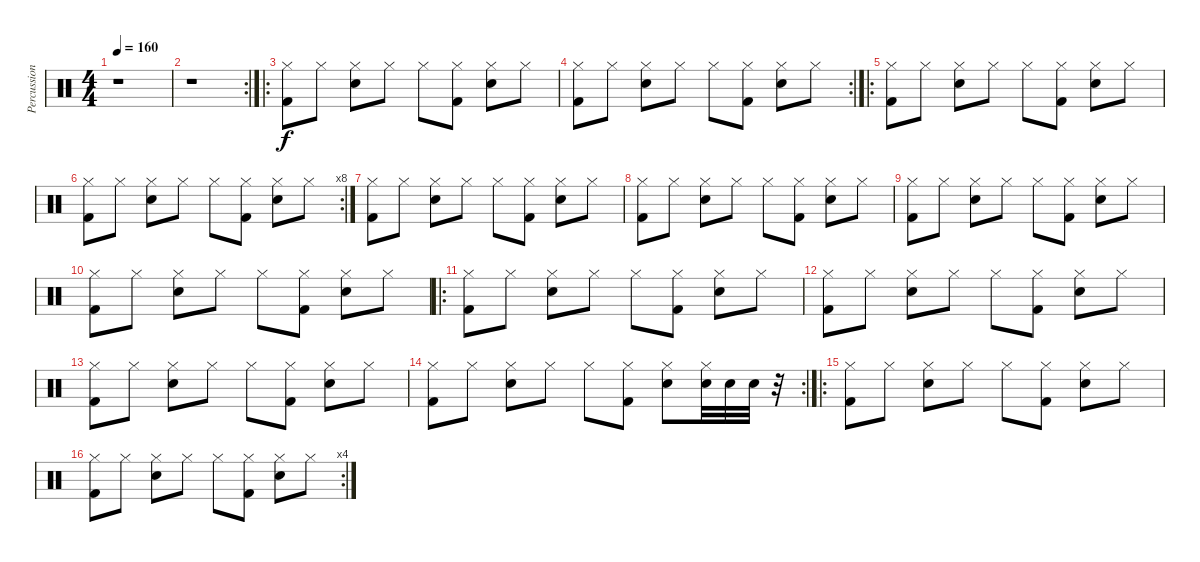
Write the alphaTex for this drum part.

\track ("Percussions" "Percussion") {instrument percussion}
\staff {score}
\articulation defaults
\ts (4 4)
\tempo 160
\clef neutral
\ks c
r.1{dy f} |
\rc 2
r.1 |
\ro
("Hi-Hat (closed)" "Kick (hit) 2").8 "Hi-Hat (closed)".8 ("Hi-Hat (closed)" "Snare (hit) 2").8 "Hi-Hat (closed)".8 "Hi-Hat (closed)".8 ("Hi-Hat (closed)" "Kick (hit) 2").8 ("Hi-Hat (closed)" "Snare (hit) 2").8 "Hi-Hat (closed)".8 |
\rc 2
("Hi-Hat (closed)" "Kick (hit) 2").8 "Hi-Hat (closed)".8 ("Hi-Hat (closed)" "Snare (hit) 2").8 "Hi-Hat (closed)".8 "Hi-Hat (closed)".8 ("Hi-Hat (closed)" "Kick (hit) 2").8 ("Hi-Hat (closed)" "Snare (hit) 2").8 "Hi-Hat (closed)".8 |
\ro
("Hi-Hat (closed)" "Kick (hit) 2").8 "Hi-Hat (closed)".8 ("Hi-Hat (closed)" "Snare (hit) 2").8 "Hi-Hat (closed)".8 "Hi-Hat (closed)".8 ("Hi-Hat (closed)" "Kick (hit) 2").8 ("Hi-Hat (closed)" "Snare (hit) 2").8 "Hi-Hat (closed)".8 |
\rc 8
("Hi-Hat (closed)" "Kick (hit) 2").8 "Hi-Hat (closed)".8 ("Hi-Hat (closed)" "Snare (hit) 2").8 "Hi-Hat (closed)".8 "Hi-Hat (closed)".8 ("Hi-Hat (closed)" "Kick (hit) 2").8 ("Hi-Hat (closed)" "Snare (hit) 2").8 "Hi-Hat (closed)".8 |
("Hi-Hat (closed)" "Kick (hit) 2").8 "Hi-Hat (closed)".8 ("Hi-Hat (closed)" "Snare (hit) 2").8 "Hi-Hat (closed)".8 "Hi-Hat (closed)".8 ("Hi-Hat (closed)" "Kick (hit) 2").8 ("Hi-Hat (closed)" "Snare (hit) 2").8 "Hi-Hat (closed)".8 |
("Hi-Hat (closed)" "Kick (hit) 2").8 "Hi-Hat (closed)".8 ("Hi-Hat (closed)" "Snare (hit) 2").8 "Hi-Hat (closed)".8 "Hi-Hat (closed)".8 ("Hi-Hat (closed)" "Kick (hit) 2").8 ("Hi-Hat (closed)" "Snare (hit) 2").8 "Hi-Hat (closed)".8 |
("Hi-Hat (closed)" "Kick (hit) 2").8 "Hi-Hat (closed)".8 ("Hi-Hat (closed)" "Snare (hit) 2").8 "Hi-Hat (closed)".8 "Hi-Hat (closed)".8 ("Hi-Hat (closed)" "Kick (hit) 2").8 ("Hi-Hat (closed)" "Snare (hit) 2").8 "Hi-Hat (closed)".8 |
("Hi-Hat (closed)" "Kick (hit) 2").8 "Hi-Hat (closed)".8 ("Hi-Hat (closed)" "Snare (hit) 2").8 "Hi-Hat (closed)".8 "Hi-Hat (closed)".8 ("Hi-Hat (closed)" "Kick (hit) 2").8 ("Hi-Hat (closed)" "Snare (hit) 2").8 "Hi-Hat (closed)".8 |
\ro
("Hi-Hat (closed)" "Kick (hit) 2").8 "Hi-Hat (closed)".8 ("Hi-Hat (closed)" "Snare (hit) 2").8 "Hi-Hat (closed)".8 "Hi-Hat (closed)".8 ("Hi-Hat (closed)" "Kick (hit) 2").8 ("Hi-Hat (closed)" "Snare (hit) 2").8 "Hi-Hat (closed)".8 |
("Hi-Hat (closed)" "Kick (hit) 2").8 "Hi-Hat (closed)".8 ("Hi-Hat (closed)" "Snare (hit) 2").8 "Hi-Hat (closed)".8 "Hi-Hat (closed)".8 ("Hi-Hat (closed)" "Kick (hit) 2").8 ("Hi-Hat (closed)" "Snare (hit) 2").8 "Hi-Hat (closed)".8 |
("Hi-Hat (closed)" "Kick (hit) 2").8 "Hi-Hat (closed)".8 ("Hi-Hat (closed)" "Snare (hit) 2").8 "Hi-Hat (closed)".8 "Hi-Hat (closed)".8 ("Hi-Hat (closed)" "Kick (hit) 2").8 ("Hi-Hat (closed)" "Snare (hit) 2").8 "Hi-Hat (closed)".8 |
\rc 2
("Hi-Hat (closed)" "Kick (hit) 2").8 "Hi-Hat (closed)".8 ("Hi-Hat (closed)" "Snare (hit) 2").8 "Hi-Hat (closed)".8 "Hi-Hat (closed)".8 ("Hi-Hat (closed)" "Kick (hit) 2").8 ("Hi-Hat (closed)" "Snare (hit) 2").8 ("Hi-Hat (closed)" "Snare (hit) 2").32 "Snare (hit) 2".32 "Snare (hit) 2".32 r.32 |
\ro
("Hi-Hat (closed)" "Kick (hit) 2").8 "Hi-Hat (closed)".8 ("Hi-Hat (closed)" "Snare (hit) 2").8 "Hi-Hat (closed)".8 "Hi-Hat (closed)".8 ("Hi-Hat (closed)" "Kick (hit) 2").8 ("Hi-Hat (closed)" "Snare (hit) 2").8 "Hi-Hat (closed)".8 |
\rc 4
("Hi-Hat (closed)" "Kick (hit) 2").8 "Hi-Hat (closed)".8 ("Hi-Hat (closed)" "Snare (hit) 2").8 "Hi-Hat (closed)".8 "Hi-Hat (closed)".8 ("Hi-Hat (closed)" "Kick (hit) 2").8 ("Hi-Hat (closed)" "Snare (hit) 2").8 "Hi-Hat (closed)".8
